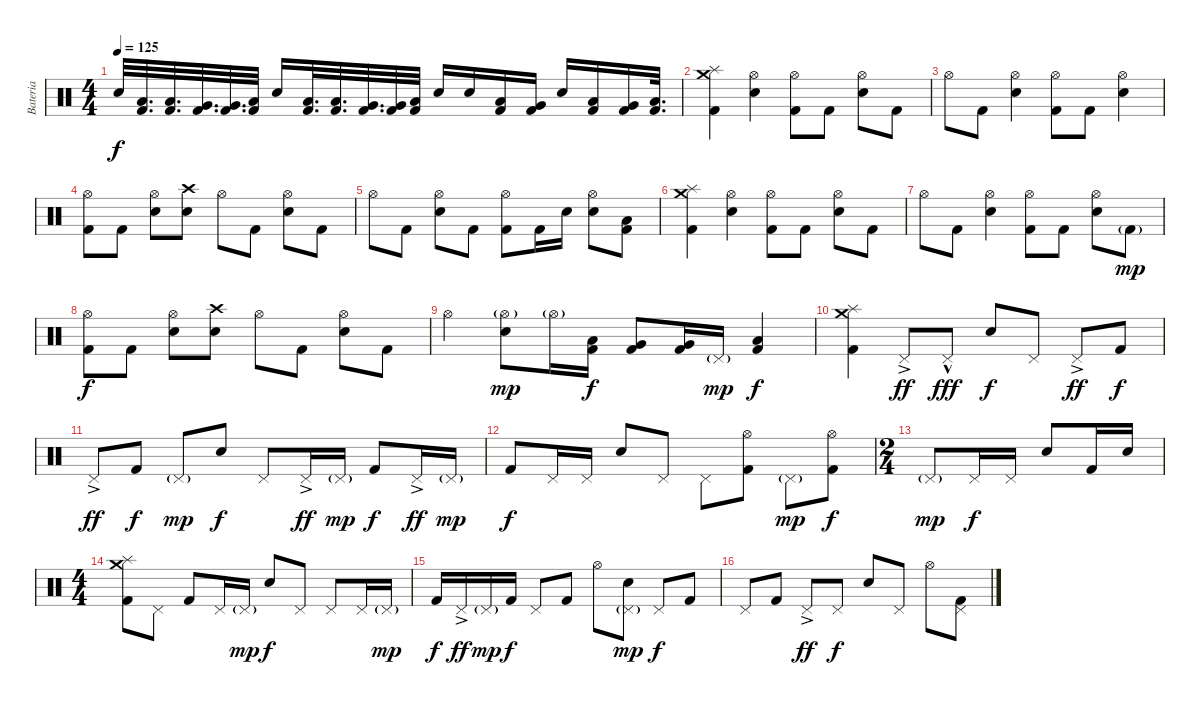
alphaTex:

\track ("Bateria" "Bateria") {instrument percussion}
\staff {score}
\articulation defaults
\ts (4 4)
\tempo 125
\clef neutral
\ks c "Electric Snare (hit)".32{dy f}
("Low Tom (hit)" "Kick (hit) 2").32{d} ("Low Tom (hit)" "Kick (hit) 2").32{d} ("Very Low Tom (hit)" "Kick (hit) 2").32{d} ("Very Low Tom (hit)" "Kick (hit) 2").32{d} ("Low Floor Tom (hit)" "Kick (hit) 2").32 "Electric Snare (hit)".16 ("Low Tom (hit)" "Kick (hit) 2").32{d} ("Low Tom (hit)" "Kick (hit) 2").32{d} ("Very Low Tom (hit)" "Kick (hit) 2").32{d} ("Very Low Tom (hit)" "Kick (hit) 2").32 ("Low Floor Tom (hit)" "Kick (hit) 2").32 "Electric Snare (hit)".16 "Electric Snare (hit)".16 ("Low Tom (hit)" "Kick (hit) 2").16 ("Very Low Tom (hit)" "Kick (hit) 2").16 "Electric Snare (hit)".16 ("Low Tom (hit)" "Kick (hit) 2").16 ("Very Low Tom (hit)" "Kick (hit) 2").16 ("Low Floor Tom (hit)" "Kick (hit) 2").32{d} |
("Crash medium (hit)" "Splash (hit)" "Kick (hit) 2").4 ("Hi-Hat (open)" "Electric Snare (hit)").4 ("Hi-Hat (open)" "Kick (hit) 2").8 "Kick (hit) 2".8 ("Hi-Hat (open)" "Electric Snare (hit)").8 "Kick (hit) 2".8 |
"Hi-Hat (open)".8 "Kick (hit) 2".8 ("Hi-Hat (open)" "Electric Snare (hit)").4 ("Hi-Hat (open)" "Kick (hit) 2").8 "Kick (hit) 2".8 ("Hi-Hat (open)" "Electric Snare (hit)").4 |
("Hi-Hat (open)" "Kick (hit) 2").8 "Kick (hit) 2".8 ("Hi-Hat (open)" "Electric Snare (hit)").8 ("Crash high (hit)" "Electric Snare (hit)").8 "Hi-Hat (open)".8 "Kick (hit) 2".8 ("Hi-Hat (open)" "Electric Snare (hit)").8 "Kick (hit) 2".8 |
"Hi-Hat (open)".8 "Kick (hit) 2".8 ("Hi-Hat (open)" "Electric Snare (hit)").8 "Kick (hit) 2".8 ("Hi-Hat (open)" "Kick (hit) 2").8 "Kick (hit) 2".16 "Electric Snare (hit)".16 ("Hi-Hat (open)" "Electric Snare (hit)").8 ("Low Floor Tom (hit)" "Kick (hit) 2").8 |
("Crash medium (hit)" "Splash (hit)" "Kick (hit) 2").4 ("Hi-Hat (open)" "Electric Snare (hit)").4 ("Hi-Hat (open)" "Kick (hit) 2").8 "Kick (hit) 2".8 ("Hi-Hat (open)" "Electric Snare (hit)").8 "Kick (hit) 2".8 |
"Hi-Hat (open)".8 "Kick (hit) 2".8 ("Hi-Hat (open)" "Electric Snare (hit)").4 ("Hi-Hat (open)" "Kick (hit) 2").8 "Kick (hit) 2".8 ("Hi-Hat (open)" "Electric Snare (hit)").8 "Kick (hit) 2"{g}.8{dy mp} |
("Hi-Hat (open)" "Kick (hit) 2").8{dy f} "Kick (hit) 2".8 ("Hi-Hat (open)" "Electric Snare (hit)").8 ("Crash high (hit)" "Electric Snare (hit)").8 "Hi-Hat (open)".8 "Kick (hit) 2".8 ("Hi-Hat (open)" "Electric Snare (hit)").8 "Kick (hit) 2".8 |
"Hi-Hat (open)".4 ("Hi-Hat (open)"{g} "Electric Snare (hit)").8{dy mp} "Hi-Hat (open)"{g}.16 ("Low Tom (hit)" "Kick (hit) 2").16{dy f} ("Very Low Tom (hit)" "Kick (hit) 2").8 ("Very Low Tom (hit)" "Kick (hit) 2").16 "Pedal Hi-Hat (hit)"{g}.16{dy mp} ("Low Floor Tom (hit)" "Kick (hit) 2").4{dy f} |
("Crash medium (hit)" "Splash (hit)" "Kick (hit) 2").4 "Pedal Hi-Hat (hit)"{ac}.8{dy ff} "Pedal Hi-Hat (hit)"{hac}.8{dy fff} "Electric Snare (hit)".8{dy f} "Pedal Hi-Hat (hit)".8 "Pedal Hi-Hat (hit)"{ac}.8{dy ff} "Kick (hit) 2".8{dy f} |
"Pedal Hi-Hat (hit)"{ac}.8{dy ff} "Kick (hit) 2".8{dy f} "Pedal Hi-Hat (hit)"{g}.8{dy mp} "Electric Snare (hit)".8{dy f} "Pedal Hi-Hat (hit)".8 "Pedal Hi-Hat (hit)"{ac}.16{dy ff} "Pedal Hi-Hat (hit)"{g}.16{dy mp} "Kick (hit) 2".8{dy f} "Pedal Hi-Hat (hit)"{ac}.16{dy ff} "Pedal Hi-Hat (hit)"{g}.16{dy mp} |
"Kick (hit) 2".8{dy f} "Pedal Hi-Hat (hit)".16 "Pedal Hi-Hat (hit)".16 "Electric Snare (hit)".8 "Pedal Hi-Hat (hit)".8 "Pedal Hi-Hat (hit)".8 ("Hi-Hat (open)" "Kick (hit) 2").8 "Pedal Hi-Hat (hit)"{g}.8{dy mp} ("Hi-Hat (open)" "Kick (hit) 2").8{dy f} |
\ts (2 4)
"Pedal Hi-Hat (hit)"{g}.8{dy mp} "Pedal Hi-Hat (hit)".16{dy f} "Pedal Hi-Hat (hit)".16 "Electric Snare (hit)".8 "Kick (hit) 2".16 "Electric Snare (hit)".16 |
\ts (4 4)
("Crash medium (hit)" "Splash (hit)" "Kick (hit) 2").8 "Pedal Hi-Hat (hit)".8 "Kick (hit) 2".8 "Pedal Hi-Hat (hit)".16 "Pedal Hi-Hat (hit)"{g}.16{dy mp} "Electric Snare (hit)".8{dy f} "Pedal Hi-Hat (hit)".8 "Pedal Hi-Hat (hit)".8 "Pedal Hi-Hat (hit)".16 "Pedal Hi-Hat (hit)"{g}.16{dy mp} |
"Kick (hit) 2".16{dy f} "Pedal Hi-Hat (hit)"{ac}.16{dy ff} "Pedal Hi-Hat (hit)"{g}.16{dy mp} "Kick (hit) 2".16{dy f} "Pedal Hi-Hat (hit)".8 "Kick (hit) 2".8 "Hi-Hat (open)".8 ("Pedal Hi-Hat (hit)"{g} "Electric Snare (hit)").8{dy mp} "Pedal Hi-Hat (hit)".8{dy f} "Kick (hit) 2".8 |
"Pedal Hi-Hat (hit)".8 "Kick (hit) 2".8 "Pedal Hi-Hat (hit)"{ac}.8{dy ff} "Pedal Hi-Hat (hit)".8{dy f} "Electric Snare (hit)".8 "Pedal Hi-Hat (hit)".8 "Hi-Hat (open)".8 ("Pedal Hi-Hat (hit)" "Kick (hit) 2").8
